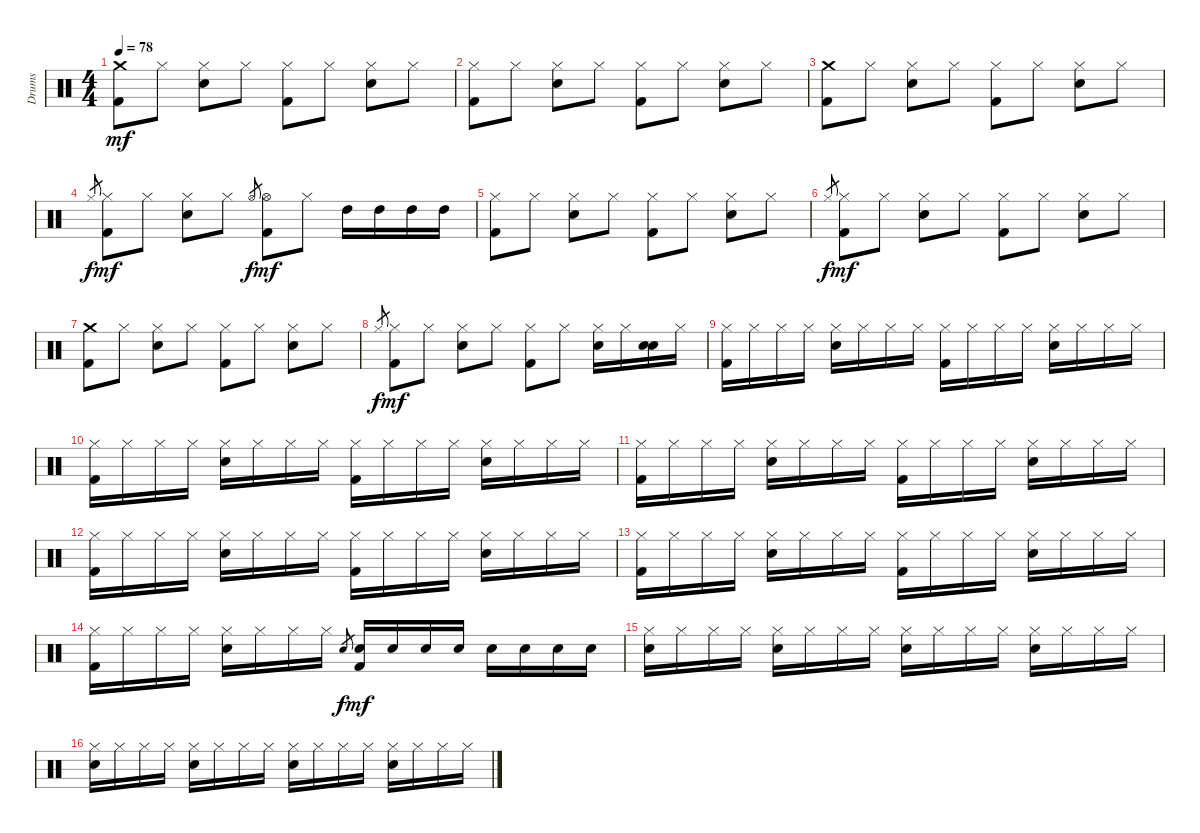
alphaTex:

\track ("Drums" "Drums") {instrument percussion}
\staff {score}
\articulation defaults
\ts (4 4)
\tempo 78
\clef neutral
\ks c
("Crash medium (hit)" "Kick (hit) 2").8{dy mf} "Hi-Hat (closed)".8 ("Hi-Hat (closed)" "Electric Snare (hit)").8 "Hi-Hat (closed)".8 ("Hi-Hat (closed)" "Kick (hit) 2").8 "Hi-Hat (closed)".8 ("Hi-Hat (closed)" "Electric Snare (hit)").8 "Hi-Hat (closed)".8 |
("Hi-Hat (closed)" "Kick (hit) 2").8 "Hi-Hat (closed)".8 ("Hi-Hat (closed)" "Electric Snare (hit)").8 "Hi-Hat (closed)".8 ("Hi-Hat (closed)" "Kick (hit) 2").8 "Hi-Hat (closed)".8 ("Hi-Hat (closed)" "Electric Snare (hit)").8 "Hi-Hat (closed)".8 |
("Crash medium (hit)" "Kick (hit) 2").8 "Hi-Hat (closed)".8 ("Hi-Hat (closed)" "Electric Snare (hit)").8 "Hi-Hat (closed)".8 ("Hi-Hat (closed)" "Kick (hit) 2").8 "Hi-Hat (closed)".8 ("Hi-Hat (closed)" "Electric Snare (hit)").8 "Hi-Hat (closed)".8 |
"Hi-Hat (closed)".8{gr dy f} ("Hi-Hat (closed)" "Kick (hit) 2").8{dy mf} "Hi-Hat (closed)".8 ("Hi-Hat (closed)" "Electric Snare (hit)").8 "Hi-Hat (closed)".8 "Hi-Hat (open)".8{gr dy f} ("Hi-Hat (open)" "Kick (hit) 2").8{dy mf} "Hi-Hat (closed)".8 "High Tom (hit)".16 "High Tom (hit)".16 "High Tom (hit)".16 "High Tom (hit)".16 |
("Hi-Hat (closed)" "Kick (hit) 2").8 "Hi-Hat (closed)".8 ("Hi-Hat (closed)" "Electric Snare (hit)").8 "Hi-Hat (closed)".8 ("Hi-Hat (closed)" "Kick (hit) 2").8 "Hi-Hat (closed)".8 ("Hi-Hat (closed)" "Electric Snare (hit)").8 "Hi-Hat (closed)".8 |
"Hi-Hat (closed)".8{gr dy f} ("Hi-Hat (closed)" "Kick (hit) 2").8{dy mf} "Hi-Hat (closed)".8 ("Hi-Hat (closed)" "Electric Snare (hit)").8 "Hi-Hat (closed)".8 ("Hi-Hat (closed)" "Kick (hit) 2").8 "Hi-Hat (closed)".8 ("Hi-Hat (closed)" "Electric Snare (hit)").8 "Hi-Hat (closed)".8 |
("Crash medium (hit)" "Kick (hit) 2").8 "Hi-Hat (closed)".8 ("Hi-Hat (closed)" "Electric Snare (hit)").8 "Hi-Hat (closed)".8 ("Hi-Hat (closed)" "Kick (hit) 2").8 "Hi-Hat (closed)".8 ("Hi-Hat (closed)" "Electric Snare (hit)").8 "Hi-Hat (closed)".8 |
"Hi-Hat (closed)".8{gr dy f} ("Hi-Hat (closed)" "Kick (hit) 2").8{dy mf} "Hi-Hat (closed)".8 ("Hi-Hat (closed)" "Electric Snare (hit)").8 "Hi-Hat (closed)".8 ("Hi-Hat (closed)" "Kick (hit) 2").8 "Hi-Hat (closed)".8 ("Hi-Hat (closed)" "Electric Snare (hit)").16 "Hi-Hat (closed)".16 ("Electric Snare (hit)" "Electric Snare (hit)").16 "Hi-Hat (closed)".16 |
("Hi-Hat (closed)" "Kick (hit) 2").16 "Hi-Hat (closed)".16 "Hi-Hat (closed)".16 "Hi-Hat (closed)".16 ("Hi-Hat (closed)" "Electric Snare (hit)").16 "Hi-Hat (closed)".16 "Hi-Hat (closed)".16 "Hi-Hat (closed)".16 ("Hi-Hat (closed)" "Kick (hit) 2").16 "Hi-Hat (closed)".16 "Hi-Hat (closed)".16 "Hi-Hat (closed)".16 ("Hi-Hat (closed)" "Electric Snare (hit)").16 "Hi-Hat (closed)".16 "Hi-Hat (closed)".16 "Hi-Hat (closed)".16 |
("Hi-Hat (closed)" "Kick (hit) 2").16 "Hi-Hat (closed)".16 "Hi-Hat (closed)".16 "Hi-Hat (closed)".16 ("Hi-Hat (closed)" "Electric Snare (hit)").16 "Hi-Hat (closed)".16 "Hi-Hat (closed)".16 "Hi-Hat (closed)".16 ("Hi-Hat (closed)" "Kick (hit) 2").16 "Hi-Hat (closed)".16 "Hi-Hat (closed)".16 "Hi-Hat (closed)".16 ("Hi-Hat (closed)" "Electric Snare (hit)").16 "Hi-Hat (closed)".16 "Hi-Hat (closed)".16 "Hi-Hat (closed)".16 |
("Hi-Hat (closed)" "Kick (hit) 2").16 "Hi-Hat (closed)".16 "Hi-Hat (closed)".16 "Hi-Hat (closed)".16 ("Hi-Hat (closed)" "Electric Snare (hit)").16 "Hi-Hat (closed)".16 "Hi-Hat (closed)".16 "Hi-Hat (closed)".16 ("Hi-Hat (closed)" "Kick (hit) 2").16 "Hi-Hat (closed)".16 "Hi-Hat (closed)".16 "Hi-Hat (closed)".16 ("Hi-Hat (closed)" "Electric Snare (hit)").16 "Hi-Hat (closed)".16 "Hi-Hat (closed)".16 "Hi-Hat (closed)".16 |
("Hi-Hat (closed)" "Kick (hit) 2").16 "Hi-Hat (closed)".16 "Hi-Hat (closed)".16 "Hi-Hat (closed)".16 ("Hi-Hat (closed)" "Electric Snare (hit)").16 "Hi-Hat (closed)".16 "Hi-Hat (closed)".16 "Hi-Hat (closed)".16 ("Hi-Hat (closed)" "Kick (hit) 2").16 "Hi-Hat (closed)".16 "Hi-Hat (closed)".16 "Hi-Hat (closed)".16 ("Hi-Hat (closed)" "Electric Snare (hit)").16 "Hi-Hat (closed)".16 "Hi-Hat (closed)".16 "Hi-Hat (closed)".16 |
("Hi-Hat (closed)" "Kick (hit) 2").16 "Hi-Hat (closed)".16 "Hi-Hat (closed)".16 "Hi-Hat (closed)".16 ("Hi-Hat (closed)" "Electric Snare (hit)").16 "Hi-Hat (closed)".16 "Hi-Hat (closed)".16 "Hi-Hat (closed)".16 ("Hi-Hat (closed)" "Kick (hit) 2").16 "Hi-Hat (closed)".16 "Hi-Hat (closed)".16 "Hi-Hat (closed)".16 ("Hi-Hat (closed)" "Electric Snare (hit)").16 "Hi-Hat (closed)".16 "Hi-Hat (closed)".16 "Hi-Hat (closed)".16 |
("Hi-Hat (closed)" "Kick (hit) 2").16 "Hi-Hat (closed)".16 "Hi-Hat (closed)".16 "Hi-Hat (closed)".16 ("Hi-Hat (closed)" "Electric Snare (hit)").16 "Hi-Hat (closed)".16 "Hi-Hat (closed)".16 "Hi-Hat (closed)".16 "Electric Snare (hit)".8{gr dy f} ("Electric Snare (hit)" "Kick (hit) 2").16{dy mf} "Electric Snare (hit)".16 "Electric Snare (hit)".16 "Electric Snare (hit)".16 "Electric Snare (hit)".16 "Electric Snare (hit)".16 "Electric Snare (hit)".16 "Electric Snare (hit)".16 |
("Hi-Hat (closed)" "Electric Snare (hit)").16 "Hi-Hat (closed)".16 "Hi-Hat (closed)".16 "Hi-Hat (closed)".16 ("Hi-Hat (closed)" "Electric Snare (hit)").16 "Hi-Hat (closed)".16 "Hi-Hat (closed)".16 "Hi-Hat (closed)".16 ("Hi-Hat (closed)" "Electric Snare (hit)").16 "Hi-Hat (closed)".16 "Hi-Hat (closed)".16 "Hi-Hat (closed)".16 ("Hi-Hat (closed)" "Electric Snare (hit)").16 "Hi-Hat (closed)".16 "Hi-Hat (closed)".16 "Hi-Hat (closed)".16 |
("Hi-Hat (closed)" "Electric Snare (hit)").16 "Hi-Hat (closed)".16 "Hi-Hat (closed)".16 "Hi-Hat (closed)".16 ("Hi-Hat (closed)" "Electric Snare (hit)").16 "Hi-Hat (closed)".16 "Hi-Hat (closed)".16 "Hi-Hat (closed)".16 ("Hi-Hat (closed)" "Electric Snare (hit)").16 "Hi-Hat (closed)".16 "Hi-Hat (closed)".16 "Hi-Hat (closed)".16 ("Hi-Hat (closed)" "Electric Snare (hit)").16 "Hi-Hat (closed)".16 "Hi-Hat (closed)".16 "Hi-Hat (closed)".16
